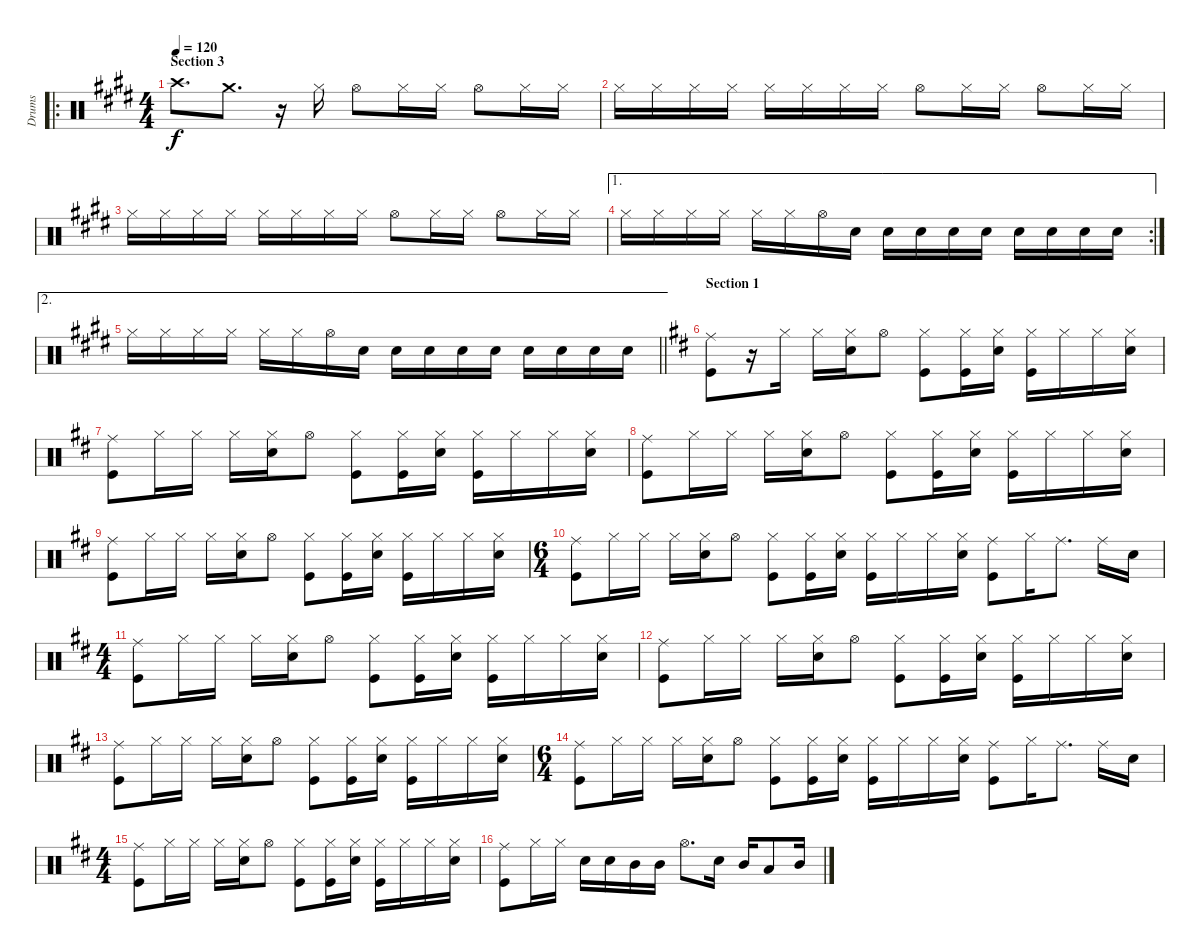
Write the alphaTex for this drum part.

\track ("Drums" "Drums") {instrument percussion}
\staff {score}
\articulation defaults
\ro
\ts (4 4)
\section ("" "Section 3")
\tempo 120
\clef neutral
\ks e "Crash high (hit)".8{d dy f} "Crash medium (hit)".8{d}
r.16 "Hi-Hat (closed)".16 "Hi-Hat (open)".8 "Hi-Hat (closed)".16 "Hi-Hat (closed)".16 "Hi-Hat (open)".8 "Hi-Hat (closed)".16 "Hi-Hat (closed)".16 |
"Hi-Hat (closed)".16 "Hi-Hat (closed)".16 "Hi-Hat (closed)".16 "Hi-Hat (closed)".16 "Hi-Hat (closed)".16 "Hi-Hat (closed)".16 "Hi-Hat (closed)".16 "Hi-Hat (closed)".16 "Hi-Hat (open)".8 "Hi-Hat (closed)".16 "Hi-Hat (closed)".16 "Hi-Hat (open)".8 "Hi-Hat (closed)".16 "Hi-Hat (closed)".16 |
"Hi-Hat (closed)".16 "Hi-Hat (closed)".16 "Hi-Hat (closed)".16 "Hi-Hat (closed)".16 "Hi-Hat (closed)".16 "Hi-Hat (closed)".16 "Hi-Hat (closed)".16 "Hi-Hat (closed)".16 "Hi-Hat (open)".8 "Hi-Hat (closed)".16 "Hi-Hat (closed)".16 "Hi-Hat (open)".8 "Hi-Hat (closed)".16 "Hi-Hat (closed)".16 |
\ae 1
\rc 2 "Hi-Hat (closed)".16 "Hi-Hat (closed)".16 "Hi-Hat (closed)".16 "Hi-Hat (closed)".16 "Hi-Hat (closed)".16 "Hi-Hat (closed)".16 "Hi-Hat (open)".16 "Snare (hit) 2".16 "Snare (hit) 2".16 "Snare (hit) 2".16 "Snare (hit) 2".16 "Snare (hit) 2".16 "Snare (hit) 2".16 "Snare (hit) 2".16 "Snare (hit) 2".16 "Snare (hit) 2".16
|
\ae 2
\barLineRight lightlight "Hi-Hat (closed)".16 "Hi-Hat (closed)".16 "Hi-Hat (closed)".16 "Hi-Hat (closed)".16 "Hi-Hat (closed)".16 "Hi-Hat (closed)".16 "Hi-Hat (open)".16 "Snare (hit) 2".16 "Snare (hit) 2".16 "Snare (hit) 2".16 "Snare (hit) 2".16 "Snare (hit) 2".16 "Snare (hit) 2".16 "Snare (hit) 2".16 "Snare (hit) 2".16 "Snare (hit) 2".16
|
\section ("" "Section 1")
\ks d
("Ride (middle)" "Kick (hit)").8 r.16 "Hi-Hat (closed)".16 "Hi-Hat (closed)".16 ("Hi-Hat (closed)" "Snare (hit) 2").16 "Hi-Hat (open)".8 ("Hi-Hat (closed)" "Kick (hit)").8 ("Hi-Hat (closed)" "Kick (hit)").16 ("Hi-Hat (closed)" "Snare (hit) 2").16 ("Hi-Hat (closed)" "Kick (hit)").16 "Hi-Hat (closed)".16 "Hi-Hat (closed)".16 ("Hi-Hat (closed)" "Snare (hit) 2").16 |
("Ride (middle)" "Kick (hit)").8 "Hi-Hat (closed)".16 "Hi-Hat (closed)".16 "Hi-Hat (closed)".16 ("Hi-Hat (closed)" "Snare (hit) 2").16 "Hi-Hat (open)".8 ("Hi-Hat (closed)" "Kick (hit)").8 ("Hi-Hat (closed)" "Kick (hit)").16 ("Hi-Hat (closed)" "Snare (hit) 2").16 ("Hi-Hat (closed)" "Kick (hit)").16 "Hi-Hat (closed)".16 "Hi-Hat (closed)".16 ("Hi-Hat (closed)" "Snare (hit) 2").16 |
("Ride (middle)" "Kick (hit)").8 "Hi-Hat (closed)".16 "Hi-Hat (closed)".16 "Hi-Hat (closed)".16 ("Hi-Hat (closed)" "Snare (hit) 2").16 "Hi-Hat (open)".8 ("Hi-Hat (closed)" "Kick (hit)").8 ("Hi-Hat (closed)" "Kick (hit)").16 ("Hi-Hat (closed)" "Snare (hit) 2").16 ("Hi-Hat (closed)" "Kick (hit)").16 "Hi-Hat (closed)".16 "Hi-Hat (closed)".16 ("Hi-Hat (closed)" "Snare (hit) 2").16 |
("Ride (middle)" "Kick (hit)").8 "Hi-Hat (closed)".16 "Hi-Hat (closed)".16 "Hi-Hat (closed)".16 ("Hi-Hat (closed)" "Snare (hit) 2").16 "Hi-Hat (open)".8 ("Hi-Hat (closed)" "Kick (hit)").8 ("Hi-Hat (closed)" "Kick (hit)").16 ("Hi-Hat (closed)" "Snare (hit) 2").16 ("Hi-Hat (closed)" "Kick (hit)").16 "Hi-Hat (closed)".16 "Hi-Hat (closed)".16 ("Hi-Hat (closed)" "Snare (hit) 2").16 |
\ts (6 4)
("Ride (middle)" "Kick (hit)").8 "Hi-Hat (closed)".16 "Hi-Hat (closed)".16 "Hi-Hat (closed)".16 ("Hi-Hat (closed)" "Snare (hit) 2").16 "Hi-Hat (open)".8 ("Hi-Hat (closed)" "Kick (hit)").8 ("Hi-Hat (closed)" "Kick (hit)").16 ("Hi-Hat (closed)" "Snare (hit) 2").16 ("Hi-Hat (closed)" "Kick (hit)").16 "Hi-Hat (closed)".16 "Hi-Hat (closed)".16 ("Hi-Hat (closed)" "Snare (hit) 2").16 ("Ride (middle)" "Kick (hit)").8 "Hi-Hat (closed)".16 "Ride (middle)".8{d} "Ride (middle)".16 "Snare (hit) 2".16 |
\ts (4 4)
("Ride (middle)" "Kick (hit)").8 "Hi-Hat (closed)".16 "Hi-Hat (closed)".16 "Hi-Hat (closed)".16 ("Hi-Hat (closed)" "Snare (hit) 2").16 "Hi-Hat (open)".8 ("Hi-Hat (closed)" "Kick (hit)").8 ("Hi-Hat (closed)" "Kick (hit)").16 ("Hi-Hat (closed)" "Snare (hit) 2").16 ("Hi-Hat (closed)" "Kick (hit)").16 "Hi-Hat (closed)".16 "Hi-Hat (closed)".16 ("Hi-Hat (closed)" "Snare (hit) 2").16 |
("Ride (middle)" "Kick (hit)").8 "Hi-Hat (closed)".16 "Hi-Hat (closed)".16 "Hi-Hat (closed)".16 ("Hi-Hat (closed)" "Snare (hit) 2").16 "Hi-Hat (open)".8 ("Hi-Hat (closed)" "Kick (hit)").8 ("Hi-Hat (closed)" "Kick (hit)").16 ("Hi-Hat (closed)" "Snare (hit) 2").16 ("Hi-Hat (closed)" "Kick (hit)").16 "Hi-Hat (closed)".16 "Hi-Hat (closed)".16 ("Hi-Hat (closed)" "Snare (hit) 2").16 |
("Ride (middle)" "Kick (hit)").8 "Hi-Hat (closed)".16 "Hi-Hat (closed)".16 "Hi-Hat (closed)".16 ("Hi-Hat (closed)" "Snare (hit) 2").16 "Hi-Hat (open)".8 ("Hi-Hat (closed)" "Kick (hit)").8 ("Hi-Hat (closed)" "Kick (hit)").16 ("Hi-Hat (closed)" "Snare (hit) 2").16 ("Hi-Hat (closed)" "Kick (hit)").16 "Hi-Hat (closed)".16 "Hi-Hat (closed)".16 ("Hi-Hat (closed)" "Snare (hit) 2").16 |
\ts (6 4)
("Ride (middle)" "Kick (hit)").8 "Hi-Hat (closed)".16 "Hi-Hat (closed)".16 "Hi-Hat (closed)".16 ("Hi-Hat (closed)" "Snare (hit) 2").16 "Hi-Hat (open)".8 ("Hi-Hat (closed)" "Kick (hit)").8 ("Hi-Hat (closed)" "Kick (hit)").16 ("Hi-Hat (closed)" "Snare (hit) 2").16 ("Hi-Hat (closed)" "Kick (hit)").16 "Hi-Hat (closed)".16 "Hi-Hat (closed)".16 ("Hi-Hat (closed)" "Snare (hit) 2").16 ("Ride (middle)" "Kick (hit)").8 "Hi-Hat (closed)".16 "Ride (middle)".8{d} "Ride (middle)".16 "Snare (hit) 2".16 |
\ts (4 4)
("Ride (middle)" "Kick (hit)").8 "Hi-Hat (closed)".16 "Hi-Hat (closed)".16 "Hi-Hat (closed)".16 ("Hi-Hat (closed)" "Snare (hit) 2").16 "Hi-Hat (open)".8 ("Hi-Hat (closed)" "Kick (hit)").8 ("Hi-Hat (closed)" "Kick (hit)").16 ("Hi-Hat (closed)" "Snare (hit) 2").16 ("Hi-Hat (closed)" "Kick (hit)").16 "Hi-Hat (closed)".16 "Hi-Hat (closed)".16 ("Hi-Hat (closed)" "Snare (hit) 2").16 |
("Ride (middle)" "Kick (hit)").8 "Hi-Hat (closed)".16 "Hi-Hat (closed)".16 "Snare (hit) 2".16 "Snare (hit) 2".16 "Mid Tom (hit)".16 "Mid Tom (hit)".16 "Hi-Hat (open)".8{d} "Snare (hit) 2".16 "Mid Tom (hit)".16 "Low Tom (hit)".8 "Mid Tom (hit)".16
